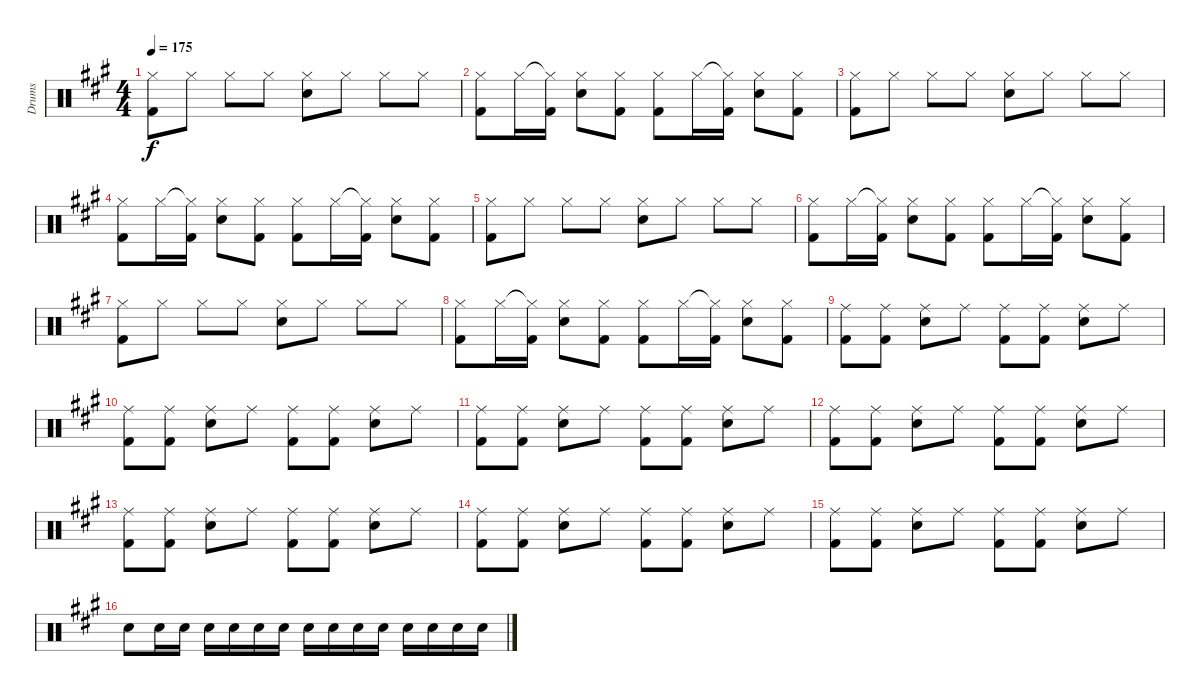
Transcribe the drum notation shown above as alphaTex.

\track ("Drums" "Drums") {instrument percussion}
\staff {score}
\articulation defaults
\ts (4 4)
\tempo 175
\clef neutral
\ks f#minor
("Hi-Hat (closed)" "Kick (hit) 2").8{dy f} "Hi-Hat (closed)".8 "Hi-Hat (closed)".8 "Hi-Hat (closed)".8 ("Hi-Hat (closed)" "Snare (hit) 2").8 "Hi-Hat (closed)".8 "Hi-Hat (closed)".8 "Hi-Hat (closed)".8 |
("Hi-Hat (closed)" "Kick (hit) 2").8 "Hi-Hat (closed)".16 ("Hi-Hat (closed)"{t} "Kick (hit) 2").16 ("Hi-Hat (closed)" "Snare (hit) 2").8 ("Hi-Hat (closed)" "Kick (hit) 2").8 ("Hi-Hat (closed)" "Kick (hit) 2").8 "Hi-Hat (closed)".16 ("Hi-Hat (closed)"{t} "Kick (hit) 2").16 ("Hi-Hat (closed)" "Snare (hit) 2").8 ("Hi-Hat (closed)" "Kick (hit) 2").8 |
("Hi-Hat (closed)" "Kick (hit) 2").8 "Hi-Hat (closed)".8 "Hi-Hat (closed)".8 "Hi-Hat (closed)".8 ("Hi-Hat (closed)" "Snare (hit) 2").8 "Hi-Hat (closed)".8 "Hi-Hat (closed)".8 "Hi-Hat (closed)".8 |
("Hi-Hat (closed)" "Kick (hit) 2").8 "Hi-Hat (closed)".16 ("Hi-Hat (closed)"{t} "Kick (hit) 2").16 ("Hi-Hat (closed)" "Snare (hit) 2").8 ("Hi-Hat (closed)" "Kick (hit) 2").8 ("Hi-Hat (closed)" "Kick (hit) 2").8 "Hi-Hat (closed)".16 ("Hi-Hat (closed)"{t} "Kick (hit) 2").16 ("Hi-Hat (closed)" "Snare (hit) 2").8 ("Hi-Hat (closed)" "Kick (hit) 2").8 |
("Hi-Hat (closed)" "Kick (hit) 2").8 "Hi-Hat (closed)".8 "Hi-Hat (closed)".8 "Hi-Hat (closed)".8 ("Hi-Hat (closed)" "Snare (hit) 2").8 "Hi-Hat (closed)".8 "Hi-Hat (closed)".8 "Hi-Hat (closed)".8 |
("Hi-Hat (closed)" "Kick (hit) 2").8 "Hi-Hat (closed)".16 ("Hi-Hat (closed)"{t} "Kick (hit) 2").16 ("Hi-Hat (closed)" "Snare (hit) 2").8 ("Hi-Hat (closed)" "Kick (hit) 2").8 ("Hi-Hat (closed)" "Kick (hit) 2").8 "Hi-Hat (closed)".16 ("Hi-Hat (closed)"{t} "Kick (hit) 2").16 ("Hi-Hat (closed)" "Snare (hit) 2").8 ("Hi-Hat (closed)" "Kick (hit) 2").8 |
("Hi-Hat (closed)" "Kick (hit) 2").8 "Hi-Hat (closed)".8 "Hi-Hat (closed)".8 "Hi-Hat (closed)".8 ("Hi-Hat (closed)" "Snare (hit) 2").8 "Hi-Hat (closed)".8 "Hi-Hat (closed)".8 "Hi-Hat (closed)".8 |
("Hi-Hat (closed)" "Kick (hit) 2").8 "Hi-Hat (closed)".16 ("Hi-Hat (closed)"{t} "Kick (hit) 2").16 ("Hi-Hat (closed)" "Snare (hit) 2").8 ("Hi-Hat (closed)" "Kick (hit) 2").8 ("Hi-Hat (closed)" "Kick (hit) 2").8 "Hi-Hat (closed)".16 ("Hi-Hat (closed)"{t} "Kick (hit) 2").16 ("Hi-Hat (closed)" "Snare (hit) 2").8 ("Hi-Hat (closed)" "Kick (hit) 2").8 |
("Ride (middle)" "Kick (hit) 2").8 ("Ride (middle)" "Kick (hit) 2").8 ("Ride (middle)" "Snare (hit) 2").8 "Ride (middle)".8 ("Ride (middle)" "Kick (hit) 2").8 ("Ride (middle)" "Kick (hit) 2").8 ("Ride (middle)" "Snare (hit) 2").8 "Ride (middle)".8 |
("Ride (middle)" "Kick (hit) 2").8 ("Ride (middle)" "Kick (hit) 2").8 ("Ride (middle)" "Snare (hit) 2").8 "Ride (middle)".8 ("Ride (middle)" "Kick (hit) 2").8 ("Ride (middle)" "Kick (hit) 2").8 ("Ride (middle)" "Snare (hit) 2").8 "Ride (middle)".8 |
("Ride (middle)" "Kick (hit) 2").8 ("Ride (middle)" "Kick (hit) 2").8 ("Ride (middle)" "Snare (hit) 2").8 "Ride (middle)".8 ("Ride (middle)" "Kick (hit) 2").8 ("Ride (middle)" "Kick (hit) 2").8 ("Ride (middle)" "Snare (hit) 2").8 "Ride (middle)".8 |
("Ride (middle)" "Kick (hit) 2").8 ("Ride (middle)" "Kick (hit) 2").8 ("Ride (middle)" "Snare (hit) 2").8 "Ride (middle)".8 ("Ride (middle)" "Kick (hit) 2").8 ("Ride (middle)" "Kick (hit) 2").8 ("Ride (middle)" "Snare (hit) 2").8 "Ride (middle)".8 |
("Ride (middle)" "Kick (hit) 2").8 ("Ride (middle)" "Kick (hit) 2").8 ("Ride (middle)" "Snare (hit) 2").8 "Ride (middle)".8 ("Ride (middle)" "Kick (hit) 2").8 ("Ride (middle)" "Kick (hit) 2").8 ("Ride (middle)" "Snare (hit) 2").8 "Ride (middle)".8 |
("Ride (middle)" "Kick (hit) 2").8 ("Ride (middle)" "Kick (hit) 2").8 ("Ride (middle)" "Snare (hit) 2").8 "Ride (middle)".8 ("Ride (middle)" "Kick (hit) 2").8 ("Ride (middle)" "Kick (hit) 2").8 ("Ride (middle)" "Snare (hit) 2").8 "Ride (middle)".8 |
("Ride (middle)" "Kick (hit) 2").8 ("Ride (middle)" "Kick (hit) 2").8 ("Ride (middle)" "Snare (hit) 2").8 "Ride (middle)".8 ("Ride (middle)" "Kick (hit) 2").8 ("Ride (middle)" "Kick (hit) 2").8 ("Ride (middle)" "Snare (hit) 2").8 "Ride (middle)".8 |
"Snare (hit) 2".8 "Snare (hit) 2".16 "Snare (hit) 2".16 "Snare (hit) 2".16 "Snare (hit) 2".16 "Snare (hit) 2".16 "Snare (hit) 2".16 "Snare (hit) 2".16 "Snare (hit) 2".16 "Snare (hit) 2".16 "Snare (hit) 2".16 "Snare (hit) 2".16 "Snare (hit) 2".16 "Snare (hit) 2".16 "Snare (hit) 2".16
